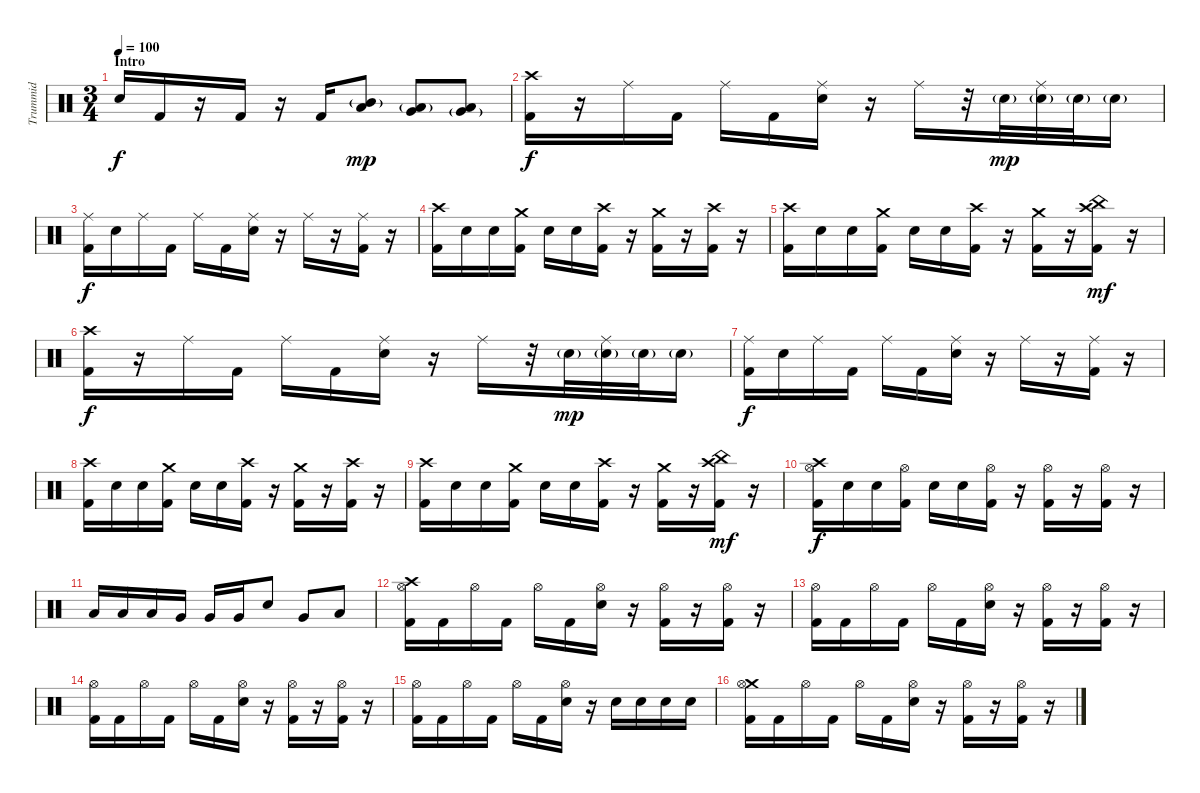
\track ("Trummid" "Trummid") {instrument percussion}
\staff {score}
\articulation defaults
\ts (3 4)
\section ("" "Intro")
\tempo 100
\clef neutral
\ks c "Snare (hit) 2".16{dy f} "Kick (hit) 2".16
r.16 "Kick (hit) 2".16 r.16 "Kick (hit) 2".16 ("Mid Tom (hit)"{g} "Low Tom (hit)").8{dy mp} ("Low Tom (hit)"{g} "Very Low Tom (hit)").8 ("Very Low Tom (hit)"{g} "Low Floor Tom (hit)").8 |
("Crash high (hit)" "Kick (hit) 2").16{dy f} r.16 "Ride (middle)".16 "Kick (hit) 2".16 "Ride (middle)".16 "Kick (hit) 2".16 ("Ride (middle)" "Snare (hit) 2").16 r.16 "Ride (middle)".16 r.32 "Snare (hit) 2"{g}.32{dy mp} ("Ride (middle)" "Snare (hit) 2"{g}).32 "Snare (hit) 2"{g}.32 "Snare (hit) 2"{g}.16 |
("Ride (middle)" "Kick (hit) 2").16{dy f} "Snare (hit) 2".16 "Ride (middle)".16 "Kick (hit) 2".16 "Ride (middle)".16 "Kick (hit) 2".16 ("Ride (middle)" "Snare (hit) 2").16 r.16 "Ride (middle)".16 r.16 ("Ride (middle)" "Kick (hit) 2").16 r.16 |
("Crash high (hit)" "Kick (hit) 2").16 "Snare (hit) 2".16 "Snare (hit) 2".16 ("Crash medium (hit)" "Kick (hit) 2").16 "Snare (hit) 2".16 "Snare (hit) 2".16 ("Crash high (hit)" "Kick (hit) 2").16 r.16 ("Crash medium (hit)" "Kick (hit) 2").16 r.16 ("Crash high (hit)" "Kick (hit) 2").16 r.16 |
("Crash high (hit)" "Kick (hit) 2").16 "Snare (hit) 2".16 "Snare (hit) 2".16 ("Crash medium (hit)" "Kick (hit) 2").16 "Snare (hit) 2".16 "Snare (hit) 2".16 ("Crash high (hit)" "Kick (hit) 2").16 r.16 ("Crash medium (hit)" "Kick (hit) 2").16 r.16 ("Crash high (hit)" "China (hit)" "Kick (hit) 2").16{dy mf} r.16 |
("Crash high (hit)" "Kick (hit) 2").16{dy f} r.16 "Ride (middle)".16 "Kick (hit) 2".16 "Ride (middle)".16 "Kick (hit) 2".16 ("Ride (middle)" "Snare (hit) 2").16 r.16 "Ride (middle)".16 r.32 "Snare (hit) 2"{g}.32{dy mp} ("Ride (middle)" "Snare (hit) 2"{g}).32 "Snare (hit) 2"{g}.32 "Snare (hit) 2"{g}.16 |
("Ride (middle)" "Kick (hit) 2").16{dy f} "Snare (hit) 2".16 "Ride (middle)".16 "Kick (hit) 2".16 "Ride (middle)".16 "Kick (hit) 2".16 ("Ride (middle)" "Snare (hit) 2").16 r.16 "Ride (middle)".16 r.16 ("Ride (middle)" "Kick (hit) 2").16 r.16 |
("Crash high (hit)" "Kick (hit) 2").16 "Snare (hit) 2".16 "Snare (hit) 2".16 ("Crash medium (hit)" "Kick (hit) 2").16 "Snare (hit) 2".16 "Snare (hit) 2".16 ("Crash high (hit)" "Kick (hit) 2").16 r.16 ("Crash medium (hit)" "Kick (hit) 2").16 r.16 ("Crash high (hit)" "Kick (hit) 2").16 r.16 |
("Crash high (hit)" "Kick (hit) 2").16 "Snare (hit) 2".16 "Snare (hit) 2".16 ("Crash medium (hit)" "Kick (hit) 2").16 "Snare (hit) 2".16 "Snare (hit) 2".16 ("Crash high (hit)" "Kick (hit) 2").16 r.16 ("Crash medium (hit)" "Kick (hit) 2").16 r.16 ("Crash high (hit)" "China (hit)" "Kick (hit) 2").16{dy mf} r.16 |
("Crash high (hit)" "Hi-Hat (open)" "Kick (hit) 2").16{dy f} "Snare (hit) 2".16 "Snare (hit) 2".16 ("Hi-Hat (open)" "Kick (hit) 2").16 "Snare (hit) 2".16 "Snare (hit) 2".16 ("Hi-Hat (open)" "Kick (hit) 2").16 r.16 ("Hi-Hat (open)" "Kick (hit) 2").16 r.16 ("Hi-Hat (open)" "Kick (hit) 2").16 r.16 |
"Low Tom (hit)".16 "Low Tom (hit)".16 "Low Tom (hit)".16 "Very Low Tom (hit)".16 "Very Low Tom (hit)".16 "Very Low Tom (hit)".16 "Snare (hit) 2".8 "Very Low Tom (hit)".8 "Low Floor Tom (hit)".8 |
("Crash high (hit)" "Hi-Hat (open)" "Kick (hit) 2").16 "Kick (hit) 2".16 "Hi-Hat (open)".16 "Kick (hit) 2".16 "Hi-Hat (open)".16 "Kick (hit) 2".16 ("Hi-Hat (open)" "Snare (hit) 2").16 r.16 ("Hi-Hat (open)" "Kick (hit) 2").16 r.16 ("Hi-Hat (open)" "Kick (hit) 2").16 r.16 |
("Hi-Hat (open)" "Kick (hit) 2").16 "Kick (hit) 2".16 "Hi-Hat (open)".16 "Kick (hit) 2".16 "Hi-Hat (open)".16 "Kick (hit) 2".16 ("Hi-Hat (open)" "Snare (hit) 2").16 r.16 ("Hi-Hat (open)" "Kick (hit) 2").16 r.16 ("Hi-Hat (open)" "Kick (hit) 2").16 r.16 |
("Hi-Hat (open)" "Kick (hit) 2").16 "Kick (hit) 2".16 "Hi-Hat (open)".16 "Kick (hit) 2".16 "Hi-Hat (open)".16 "Kick (hit) 2".16 ("Hi-Hat (open)" "Snare (hit) 2").16 r.16 ("Hi-Hat (open)" "Kick (hit) 2").16 r.16 ("Hi-Hat (open)" "Kick (hit) 2").16 r.16 |
("Hi-Hat (open)" "Kick (hit) 2").16 "Kick (hit) 2".16 "Hi-Hat (open)".16 "Kick (hit) 2".16 "Hi-Hat (open)".16 "Kick (hit) 2".16 ("Hi-Hat (open)" "Snare (hit) 2").16 r.16 "Snare (hit) 2".16 "Snare (hit) 2".16 "Snare (hit) 2".16 "Snare (hit) 2".16 |
("Crash medium (hit)" "Hi-Hat (open)" "Kick (hit) 2").16 "Kick (hit) 2".16 "Hi-Hat (open)".16 "Kick (hit) 2".16 "Hi-Hat (open)".16 "Kick (hit) 2".16 ("Hi-Hat (open)" "Snare (hit) 2").16 r.16 ("Hi-Hat (open)" "Kick (hit) 2").16 r.16 ("Hi-Hat (open)" "Kick (hit) 2").16 r.16
